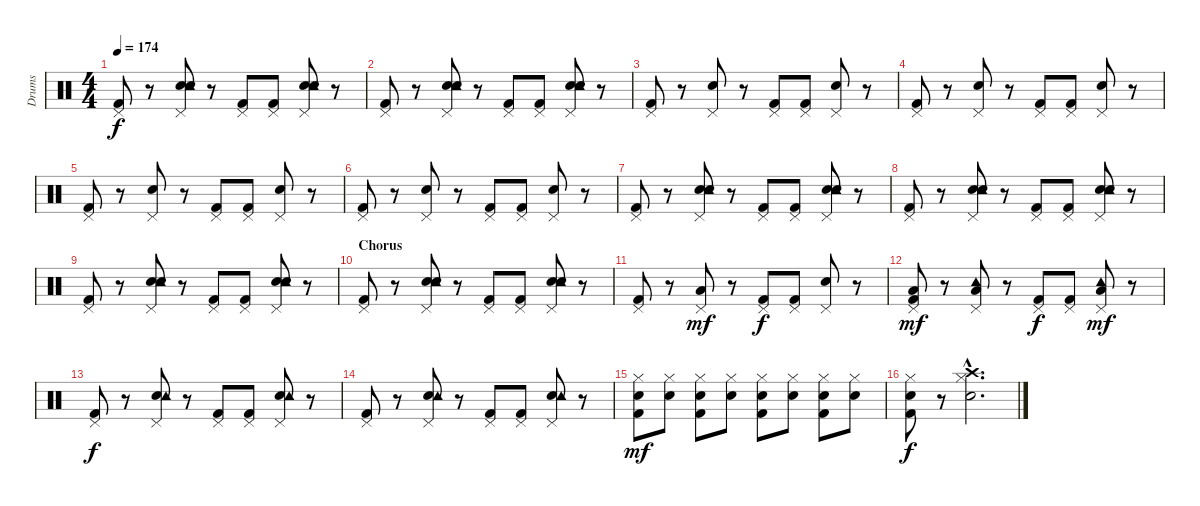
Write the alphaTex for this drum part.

\track ("Drums" "Drums") {instrument percussion}
\staff {score}
\articulation defaults
\ts (4 4)
\tempo 174
\clef neutral
\ks c
("Kick (hit) 2" "Pedal Hi-Hat (hit)").8{dy f} r.8 ("Snare (hit) 2" "Pedal Hi-Hat (hit)" "Hand Clap (hit)" "Tambourine (hit)").8 r.8 ("Kick (hit) 2" "Pedal Hi-Hat (hit)").8 ("Kick (hit) 2" "Pedal Hi-Hat (hit)").8 ("Snare (hit) 2" "Pedal Hi-Hat (hit)" "Hand Clap (hit)" "Tambourine (hit)").8 r.8 |
("Kick (hit) 2" "Pedal Hi-Hat (hit)").8 r.8 ("Snare (hit) 2" "Pedal Hi-Hat (hit)" "Hand Clap (hit)" "Tambourine (hit)").8 r.8 ("Kick (hit) 2" "Pedal Hi-Hat (hit)").8 ("Kick (hit) 2" "Pedal Hi-Hat (hit)").8 ("Snare (hit) 2" "Pedal Hi-Hat (hit)" "Hand Clap (hit)" "Tambourine (hit)").8 r.8 |
("Kick (hit) 2" "Pedal Hi-Hat (hit)").8 r.8 ("Snare (hit) 2" "Pedal Hi-Hat (hit)").8 r.8 ("Kick (hit) 2" "Pedal Hi-Hat (hit)").8 ("Kick (hit) 2" "Pedal Hi-Hat (hit)").8 ("Snare (hit) 2" "Pedal Hi-Hat (hit)").8 r.8 |
("Kick (hit) 2" "Pedal Hi-Hat (hit)").8 r.8 ("Snare (hit) 2" "Pedal Hi-Hat (hit)").8 r.8 ("Kick (hit) 2" "Pedal Hi-Hat (hit)").8 ("Kick (hit) 2" "Pedal Hi-Hat (hit)").8 ("Snare (hit) 2" "Pedal Hi-Hat (hit)").8 r.8 |
("Kick (hit) 2" "Pedal Hi-Hat (hit)").8 r.8 ("Snare (hit) 2" "Pedal Hi-Hat (hit)").8 r.8 ("Kick (hit) 2" "Pedal Hi-Hat (hit)").8 ("Kick (hit) 2" "Pedal Hi-Hat (hit)").8 ("Snare (hit) 2" "Pedal Hi-Hat (hit)").8 r.8 |
("Kick (hit) 2" "Pedal Hi-Hat (hit)").8 r.8 ("Snare (hit) 2" "Pedal Hi-Hat (hit)").8 r.8 ("Kick (hit) 2" "Pedal Hi-Hat (hit)").8 ("Kick (hit) 2" "Pedal Hi-Hat (hit)").8 ("Snare (hit) 2" "Pedal Hi-Hat (hit)").8 r.8 |
("Kick (hit) 2" "Pedal Hi-Hat (hit)").8 r.8 ("Snare (hit) 2" "Pedal Hi-Hat (hit)" "Hand Clap (hit)" "Tambourine (hit)").8 r.8 ("Kick (hit) 2" "Pedal Hi-Hat (hit)").8 ("Kick (hit) 2" "Pedal Hi-Hat (hit)").8 ("Snare (hit) 2" "Pedal Hi-Hat (hit)" "Hand Clap (hit)" "Tambourine (hit)").8 r.8 |
("Kick (hit) 2" "Pedal Hi-Hat (hit)").8 r.8 ("Snare (hit) 2" "Pedal Hi-Hat (hit)" "Hand Clap (hit)" "Tambourine (hit)").8 r.8 ("Kick (hit) 2" "Pedal Hi-Hat (hit)").8 ("Kick (hit) 2" "Pedal Hi-Hat (hit)").8 ("Snare (hit) 2" "Pedal Hi-Hat (hit)" "Hand Clap (hit)" "Tambourine (hit)").8 r.8 |
("Kick (hit) 2" "Pedal Hi-Hat (hit)").8 r.8 ("Snare (hit) 2" "Pedal Hi-Hat (hit)" "Hand Clap (hit)" "Tambourine (hit)").8 r.8 ("Kick (hit) 2" "Pedal Hi-Hat (hit)").8 ("Kick (hit) 2" "Pedal Hi-Hat (hit)").8 ("Snare (hit) 2" "Pedal Hi-Hat (hit)" "Hand Clap (hit)" "Tambourine (hit)").8 r.8 |
\section ("" "Chorus")
("Kick (hit) 2" "Pedal Hi-Hat (hit)").8 r.8 ("Snare (hit) 2" "Pedal Hi-Hat (hit)" "Hand Clap (hit)" "Tambourine (hit)").8 r.8 ("Kick (hit) 2" "Pedal Hi-Hat (hit)").8 ("Kick (hit) 2" "Pedal Hi-Hat (hit)").8 ("Snare (hit) 2" "Pedal Hi-Hat (hit)" "Hand Clap (hit)" "Tambourine (hit)").8 r.8 |
("Kick (hit) 2" "Pedal Hi-Hat (hit)").8 r.8 ("Low Floor Tom (hit)" "Pedal Hi-Hat (hit)").8{dy mf} r.8 ("Kick (hit) 2" "Pedal Hi-Hat (hit)").8{dy f} ("Kick (hit) 2" "Pedal Hi-Hat (hit)").8 ("Snare (hit) 2" "Pedal Hi-Hat (hit)").8 r.8 |
("Kick (hit) 2" "Low Floor Tom (hit)" "Pedal Hi-Hat (hit)").8{dy mf} r.8 ("Low Floor Tom (hit)" "Pedal Hi-Hat (hit)" "Tambourine (hit)").8 r.8 ("Kick (hit) 2" "Pedal Hi-Hat (hit)").8{dy f} ("Kick (hit) 2" "Pedal Hi-Hat (hit)").8 ("Low Floor Tom (hit)" "Pedal Hi-Hat (hit)" "Tambourine (hit)").8{dy mf} r.8 |
("Kick (hit) 2" "Pedal Hi-Hat (hit)").8{dy f} r.8 ("Snare (hit) 2" "Pedal Hi-Hat (hit)" "Tambourine (hit)").8 r.8 ("Kick (hit) 2" "Pedal Hi-Hat (hit)").8 ("Kick (hit) 2" "Pedal Hi-Hat (hit)").8 ("Snare (hit) 2" "Pedal Hi-Hat (hit)" "Tambourine (hit)").8 r.8 |
("Kick (hit) 2" "Pedal Hi-Hat (hit)").8 r.8 ("Snare (hit) 2" "Pedal Hi-Hat (hit)" "Tambourine (hit)").8 r.8 ("Kick (hit) 2" "Pedal Hi-Hat (hit)").8 ("Kick (hit) 2" "Pedal Hi-Hat (hit)").8 ("Snare (hit) 2" "Pedal Hi-Hat (hit)" "Tambourine (hit)").8 r.8 |
("Kick (hit) 2" "Snare (hit) 2" "Hi-Hat (closed)").8{dy mf} ("Snare (hit) 2" "Hi-Hat (closed)").8 ("Kick (hit) 2" "Snare (hit) 2" "Hi-Hat (closed)").8 ("Snare (hit) 2" "Hi-Hat (closed)").8 ("Kick (hit) 2" "Snare (hit) 2" "Hi-Hat (closed)").8 ("Snare (hit) 2" "Hi-Hat (closed)").8 ("Kick (hit) 2" "Snare (hit) 2" "Hi-Hat (closed)").8 ("Snare (hit) 2" "Hi-Hat (closed)").8 |
("Kick (hit) 2" "Snare (hit) 2" "Hi-Hat (closed)").8{dy f} r.8 ("Snare (hit) 2"{hac} "Hi-Hat (closed)"{hac} "Crash high (hit)"{hac}).2{d}
